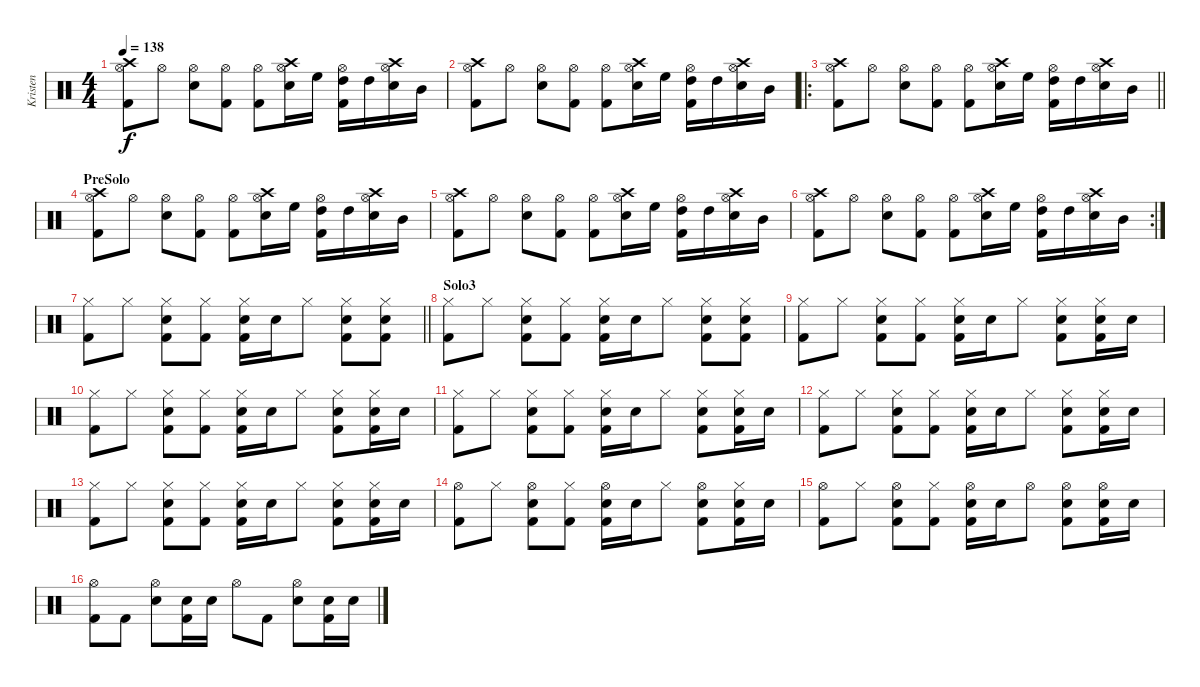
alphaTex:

\track ("Kristen" "Kristen") {instrument percussion}
\staff {score}
\articulation defaults
\ts (4 4)
\tempo 138
\clef neutral
\ks c
("Crash high (hit)" "Hi-Hat (open)" "Kick (hit) 2").8{dy f} "Hi-Hat (open)".8 ("Hi-Hat (open)" "Snare (hit) 2").8 ("Hi-Hat (open)" "Kick (hit) 2").8 ("Hi-Hat (open)" "Kick (hit) 2").8 ("Crash high (hit)" "Hi-Hat (open)" "Snare (hit) 2").16 "High Floor Tom (hit)".16 ("High Tom (hit)" "Hi-Hat (open)" "Kick (hit) 2").16 "High Tom (hit)".16 ("Crash high (hit)" "Hi-Hat (open)" "Snare (hit) 2").16 "Mid Tom (hit)".16 |
("Crash high (hit)" "Hi-Hat (open)" "Kick (hit) 2").8 "Hi-Hat (open)".8 ("Hi-Hat (open)" "Snare (hit) 2").8 ("Hi-Hat (open)" "Kick (hit) 2").8 ("Hi-Hat (open)" "Kick (hit) 2").8 ("Crash high (hit)" "Hi-Hat (open)" "Snare (hit) 2").16 "High Floor Tom (hit)".16 ("High Tom (hit)" "Hi-Hat (open)" "Kick (hit) 2").16 "High Tom (hit)".16 ("Crash high (hit)" "Hi-Hat (open)" "Snare (hit) 2").16 "Mid Tom (hit)".16 |
\ro
\barLineRight lightlight
("Crash high (hit)" "Hi-Hat (open)" "Kick (hit) 2").8 "Hi-Hat (open)".8 ("Hi-Hat (open)" "Snare (hit) 2").8 ("Hi-Hat (open)" "Kick (hit) 2").8 ("Hi-Hat (open)" "Kick (hit) 2").8 ("Crash high (hit)" "Hi-Hat (open)" "Snare (hit) 2").16 "High Floor Tom (hit)".16 ("High Tom (hit)" "Hi-Hat (open)" "Kick (hit) 2").16 "High Tom (hit)".16 ("Crash high (hit)" "Hi-Hat (open)" "Snare (hit) 2").16 "Mid Tom (hit)".16 |
\section ("" "PreSolo")
("Crash high (hit)" "Hi-Hat (open)" "Kick (hit) 2").8 "Hi-Hat (open)".8 ("Hi-Hat (open)" "Snare (hit) 2").8 ("Hi-Hat (open)" "Kick (hit) 2").8 ("Hi-Hat (open)" "Kick (hit) 2").8 ("Crash high (hit)" "Hi-Hat (open)" "Snare (hit) 2").16 "High Floor Tom (hit)".16 ("High Tom (hit)" "Hi-Hat (open)" "Kick (hit) 2").16 "High Tom (hit)".16 ("Crash high (hit)" "Hi-Hat (open)" "Snare (hit) 2").16 "Mid Tom (hit)".16 |
("Crash high (hit)" "Hi-Hat (open)" "Kick (hit) 2").8 "Hi-Hat (open)".8 ("Hi-Hat (open)" "Snare (hit) 2").8 ("Hi-Hat (open)" "Kick (hit) 2").8 ("Hi-Hat (open)" "Kick (hit) 2").8 ("Crash high (hit)" "Hi-Hat (open)" "Snare (hit) 2").16 "High Floor Tom (hit)".16 ("High Tom (hit)" "Hi-Hat (open)" "Kick (hit) 2").16 "High Tom (hit)".16 ("Crash high (hit)" "Hi-Hat (open)" "Snare (hit) 2").16 "Mid Tom (hit)".16 |
\rc 2
("Crash high (hit)" "Hi-Hat (open)" "Kick (hit) 2").8 "Hi-Hat (open)".8 ("Hi-Hat (open)" "Snare (hit) 2").8 ("Hi-Hat (open)" "Kick (hit) 2").8 ("Hi-Hat (open)" "Kick (hit) 2").8 ("Crash high (hit)" "Hi-Hat (open)" "Snare (hit) 2").16 "High Floor Tom (hit)".16 ("High Tom (hit)" "Hi-Hat (open)" "Kick (hit) 2").16 "High Tom (hit)".16 ("Crash high (hit)" "Hi-Hat (open)" "Snare (hit) 2").16 "Mid Tom (hit)".16 |
\barLineRight lightlight
("Hi-Hat (closed)" "Kick (hit) 2").8 "Hi-Hat (closed)".8 ("Hi-Hat (closed)" "Snare (hit) 2" "Kick (hit) 2").8 ("Hi-Hat (closed)" "Kick (hit) 2").8 ("Hi-Hat (closed)" "Snare (hit) 2" "Kick (hit) 2").16 "Snare (hit) 2".16 "Hi-Hat (closed)".8 ("Hi-Hat (closed)" "Snare (hit) 2" "Kick (hit) 2").8 ("Hi-Hat (closed)" "Snare (hit) 2" "Kick (hit) 2").8 |
\section ("" "Solo3")
("Hi-Hat (closed)" "Kick (hit) 2").8 "Hi-Hat (closed)".8 ("Hi-Hat (closed)" "Snare (hit) 2" "Kick (hit) 2").8 ("Hi-Hat (closed)" "Kick (hit) 2").8 ("Hi-Hat (closed)" "Snare (hit) 2" "Kick (hit) 2").16 "Snare (hit) 2".16 "Hi-Hat (closed)".8 ("Hi-Hat (closed)" "Snare (hit) 2" "Kick (hit) 2").8 ("Hi-Hat (closed)" "Snare (hit) 2" "Kick (hit) 2").8 |
("Hi-Hat (closed)" "Kick (hit) 2").8 "Hi-Hat (closed)".8 ("Hi-Hat (closed)" "Snare (hit) 2" "Kick (hit) 2").8 ("Hi-Hat (closed)" "Kick (hit) 2").8 ("Hi-Hat (closed)" "Snare (hit) 2" "Kick (hit) 2").16 "Snare (hit) 2".16 "Hi-Hat (closed)".8 ("Hi-Hat (closed)" "Snare (hit) 2" "Kick (hit) 2").8 ("Hi-Hat (closed)" "Snare (hit) 2" "Kick (hit) 2").16 "Snare (hit) 2".16 |
("Hi-Hat (closed)" "Kick (hit) 2").8 "Hi-Hat (closed)".8 ("Hi-Hat (closed)" "Snare (hit) 2" "Kick (hit) 2").8 ("Hi-Hat (closed)" "Kick (hit) 2").8 ("Hi-Hat (closed)" "Snare (hit) 2" "Kick (hit) 2").16 "Snare (hit) 2".16 "Hi-Hat (closed)".8 ("Hi-Hat (closed)" "Snare (hit) 2" "Kick (hit) 2").8 ("Hi-Hat (closed)" "Snare (hit) 2" "Kick (hit) 2").16 "Snare (hit) 2".16 |
("Hi-Hat (closed)" "Kick (hit) 2").8 "Hi-Hat (closed)".8 ("Hi-Hat (closed)" "Snare (hit) 2" "Kick (hit) 2").8 ("Hi-Hat (closed)" "Kick (hit) 2").8 ("Hi-Hat (closed)" "Snare (hit) 2" "Kick (hit) 2").16 "Snare (hit) 2".16 "Hi-Hat (closed)".8 ("Hi-Hat (closed)" "Snare (hit) 2" "Kick (hit) 2").8 ("Hi-Hat (closed)" "Snare (hit) 2" "Kick (hit) 2").16 "Snare (hit) 2".16 |
("Hi-Hat (closed)" "Kick (hit) 2").8 "Hi-Hat (closed)".8 ("Hi-Hat (closed)" "Snare (hit) 2" "Kick (hit) 2").8 ("Hi-Hat (closed)" "Kick (hit) 2").8 ("Hi-Hat (closed)" "Snare (hit) 2" "Kick (hit) 2").16 "Snare (hit) 2".16 "Hi-Hat (closed)".8 ("Hi-Hat (closed)" "Snare (hit) 2" "Kick (hit) 2").8 ("Hi-Hat (closed)" "Snare (hit) 2" "Kick (hit) 2").16 "Snare (hit) 2".16 |
("Hi-Hat (closed)" "Kick (hit) 2").8 "Hi-Hat (closed)".8 ("Hi-Hat (closed)" "Snare (hit) 2" "Kick (hit) 2").8 ("Hi-Hat (closed)" "Kick (hit) 2").8 ("Hi-Hat (closed)" "Snare (hit) 2" "Kick (hit) 2").16 "Snare (hit) 2".16 "Hi-Hat (closed)".8 ("Hi-Hat (closed)" "Snare (hit) 2" "Kick (hit) 2").8 ("Hi-Hat (closed)" "Snare (hit) 2" "Kick (hit) 2").16 "Snare (hit) 2".16 |
("Hi-Hat (open)" "Kick (hit) 2").8 "Hi-Hat (closed)".8 ("Hi-Hat (open)" "Snare (hit) 2" "Kick (hit) 2").8 ("Hi-Hat (closed)" "Kick (hit) 2").8 ("Hi-Hat (open)" "Snare (hit) 2" "Kick (hit) 2").16 "Snare (hit) 2".16 "Hi-Hat (closed)".8 ("Hi-Hat (open)" "Snare (hit) 2" "Kick (hit) 2").8 ("Hi-Hat (closed)" "Snare (hit) 2" "Kick (hit) 2").16 "Snare (hit) 2".16 |
("Hi-Hat (open)" "Kick (hit) 2").8 "Hi-Hat (closed)".8 ("Hi-Hat (open)" "Snare (hit) 2" "Kick (hit) 2").8 ("Hi-Hat (closed)" "Kick (hit) 2").8 ("Hi-Hat (open)" "Snare (hit) 2" "Kick (hit) 2").16 "Snare (hit) 2".16 "Hi-Hat (open)".8 ("Hi-Hat (open)" "Snare (hit) 2" "Kick (hit) 2").8 ("Hi-Hat (open)" "Snare (hit) 2" "Kick (hit) 2").16 "Snare (hit) 2".16 |
("Hi-Hat (open)" "Kick (hit) 2").8 "Kick (hit) 2".8 ("Hi-Hat (open)" "Snare (hit) 2").8 ("Snare (hit) 2" "Kick (hit) 2").16 "Snare (hit) 2".16 "Hi-Hat (open)".8 "Kick (hit) 2".8 ("Hi-Hat (open)" "Snare (hit) 2").8 ("Snare (hit) 2" "Kick (hit) 2").16 "Snare (hit) 2".16
